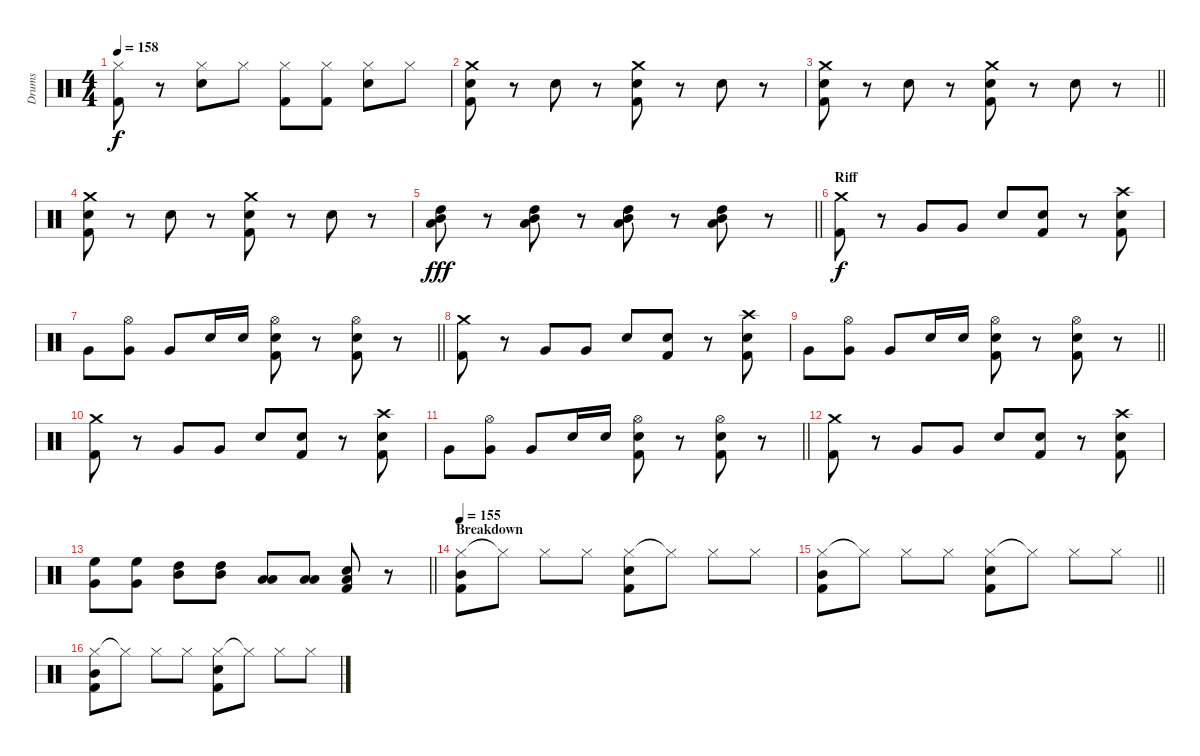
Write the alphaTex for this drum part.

\track ("Drums" "Drums") {instrument percussion}
\staff
\articulation defaults
\ts (4 4)
\tempo 158
\clef neutral
\ks c
("Hi-Hat (closed)" "Kick (hit) 2").8{dy f} r.8 ("Hi-Hat (closed)" "Electric Snare (hit)").8 "Hi-Hat (closed)".8 ("Hi-Hat (closed)" "Kick (hit) 2").8 ("Hi-Hat (closed)" "Kick (hit) 2").8 ("Hi-Hat (closed)" "Electric Snare (hit)").8 "Hi-Hat (closed)".8 |
("Crash medium (hit)" "Electric Snare (hit)" "Kick (hit) 2").8 r.8 "Electric Snare (hit)".8 r.8 ("Crash medium (hit)" "Electric Snare (hit)" "Kick (hit) 2").8 r.8 "Electric Snare (hit)".8 r.8 |
\barLineRight lightlight
("Crash medium (hit)" "Electric Snare (hit)" "Kick (hit) 2").8 r.8 "Electric Snare (hit)".8 r.8 ("Crash medium (hit)" "Electric Snare (hit)" "Kick (hit) 2").8 r.8 "Electric Snare (hit)".8 r.8 |
("Crash medium (hit)" "Electric Snare (hit)" "Kick (hit) 2").8 r.8 "Electric Snare (hit)".8 r.8 ("Crash medium (hit)" "Electric Snare (hit)" "Kick (hit) 2").8 r.8 "Electric Snare (hit)".8 r.8 |
\barLineRight lightlight
("High Tom (hit)" "Mid Tom (hit)" "Low Tom (hit)").8{dy fff} r.8 ("High Tom (hit)" "Mid Tom (hit)" "Low Tom (hit)").8 r.8 ("High Tom (hit)" "Mid Tom (hit)" "Low Tom (hit)").8 r.8 ("High Tom (hit)" "Mid Tom (hit)" "Low Tom (hit)").8 r.8 |
\section ("" "Riff")
("Crash medium (hit)" "Kick (hit) 2").8{dy f} r.8 "Very Low Tom (hit)".8 "Very Low Tom (hit)".8 "Electric Snare (hit)".8 ("Electric Snare (hit)" "Kick (hit) 2").8 r.8 ("Crash high (hit)" "Electric Snare (hit)" "Kick (hit) 2").8 |
\barLineRight lightlight "Very Low Tom (hit)".8
("Hi-Hat (open)" "Very Low Tom (hit)").8 "Very Low Tom (hit)".8 "Electric Snare (hit)".16 "Electric Snare (hit)".16 ("Hi-Hat (open)" "Electric Snare (hit)" "Kick (hit) 2").8 r.8 ("Hi-Hat (open)" "Electric Snare (hit)" "Kick (hit) 2").8 r.8 |
("Crash medium (hit)" "Kick (hit) 2").8 r.8 "Very Low Tom (hit)".8 "Very Low Tom (hit)".8 "Electric Snare (hit)".8 ("Electric Snare (hit)" "Kick (hit) 2").8 r.8 ("Crash high (hit)" "Electric Snare (hit)" "Kick (hit) 2").8 |
\barLineRight lightlight "Very Low Tom (hit)".8
("Hi-Hat (open)" "Very Low Tom (hit)").8 "Very Low Tom (hit)".8 "Electric Snare (hit)".16 "Electric Snare (hit)".16 ("Hi-Hat (open)" "Electric Snare (hit)" "Kick (hit) 2").8 r.8 ("Hi-Hat (open)" "Electric Snare (hit)" "Kick (hit) 2").8 r.8 |
("Crash medium (hit)" "Kick (hit) 2").8 r.8 "Very Low Tom (hit)".8 "Very Low Tom (hit)".8 "Electric Snare (hit)".8 ("Electric Snare (hit)" "Kick (hit) 2").8 r.8 ("Crash high (hit)" "Electric Snare (hit)" "Kick (hit) 2").8 |
\barLineRight lightlight "Very Low Tom (hit)".8
("Hi-Hat (open)" "Very Low Tom (hit)").8 "Very Low Tom (hit)".8 "Electric Snare (hit)".16 "Electric Snare (hit)".16 ("Hi-Hat (open)" "Electric Snare (hit)" "Kick (hit) 2").8 r.8 ("Hi-Hat (open)" "Electric Snare (hit)" "Kick (hit) 2").8 r.8 |
("Crash medium (hit)" "Kick (hit) 2").8 r.8 "Very Low Tom (hit)".8 "Very Low Tom (hit)".8 "Electric Snare (hit)".8 ("Electric Snare (hit)" "Kick (hit) 2").8 r.8 ("Crash high (hit)" "Electric Snare (hit)" "Kick (hit) 2").8 |
\barLineRight lightlight
("High Floor Tom (hit)" "Very Low Tom (hit)").8 ("High Floor Tom (hit)" "Very Low Tom (hit)").8 ("Mid Tom (hit)" "High Tom (hit)").8 ("Mid Tom (hit)" "High Tom (hit)").8 ("Low Tom (hit)" "Low Floor Tom (hit)").8 ("Low Tom (hit)" "Low Floor Tom (hit)").8 ("Electric Snare (hit)" "Low Tom (hit)" "Kick (hit) 2").8 r.8 |
\section ("" "Breakdown")
\tempo 155
("Hi-Hat (closed)" "Mid Tom (hit)" "Kick (hit) 2").8 "Hi-Hat (closed)"{t}.8 "Hi-Hat (closed)".8 "Hi-Hat (closed)".8 ("Hi-Hat (closed)" "Electric Snare (hit)" "Kick (hit) 2").8 "Hi-Hat (closed)"{t}.8 "Hi-Hat (closed)".8 "Hi-Hat (closed)".8 |
\barLineRight lightlight
("Hi-Hat (closed)" "Mid Tom (hit)" "Kick (hit) 2").8 "Hi-Hat (closed)"{t}.8 "Hi-Hat (closed)".8 "Hi-Hat (closed)".8 ("Hi-Hat (closed)" "Electric Snare (hit)" "Kick (hit) 2").8 "Hi-Hat (closed)"{t}.8 "Hi-Hat (closed)".8 "Hi-Hat (closed)".8 |
("Hi-Hat (closed)" "Mid Tom (hit)" "Kick (hit) 2").8 "Hi-Hat (closed)"{t}.8 "Hi-Hat (closed)".8 "Hi-Hat (closed)".8 ("Hi-Hat (closed)" "Electric Snare (hit)" "Kick (hit) 2").8 "Hi-Hat (closed)"{t}.8 "Hi-Hat (closed)".8 "Hi-Hat (closed)".8
